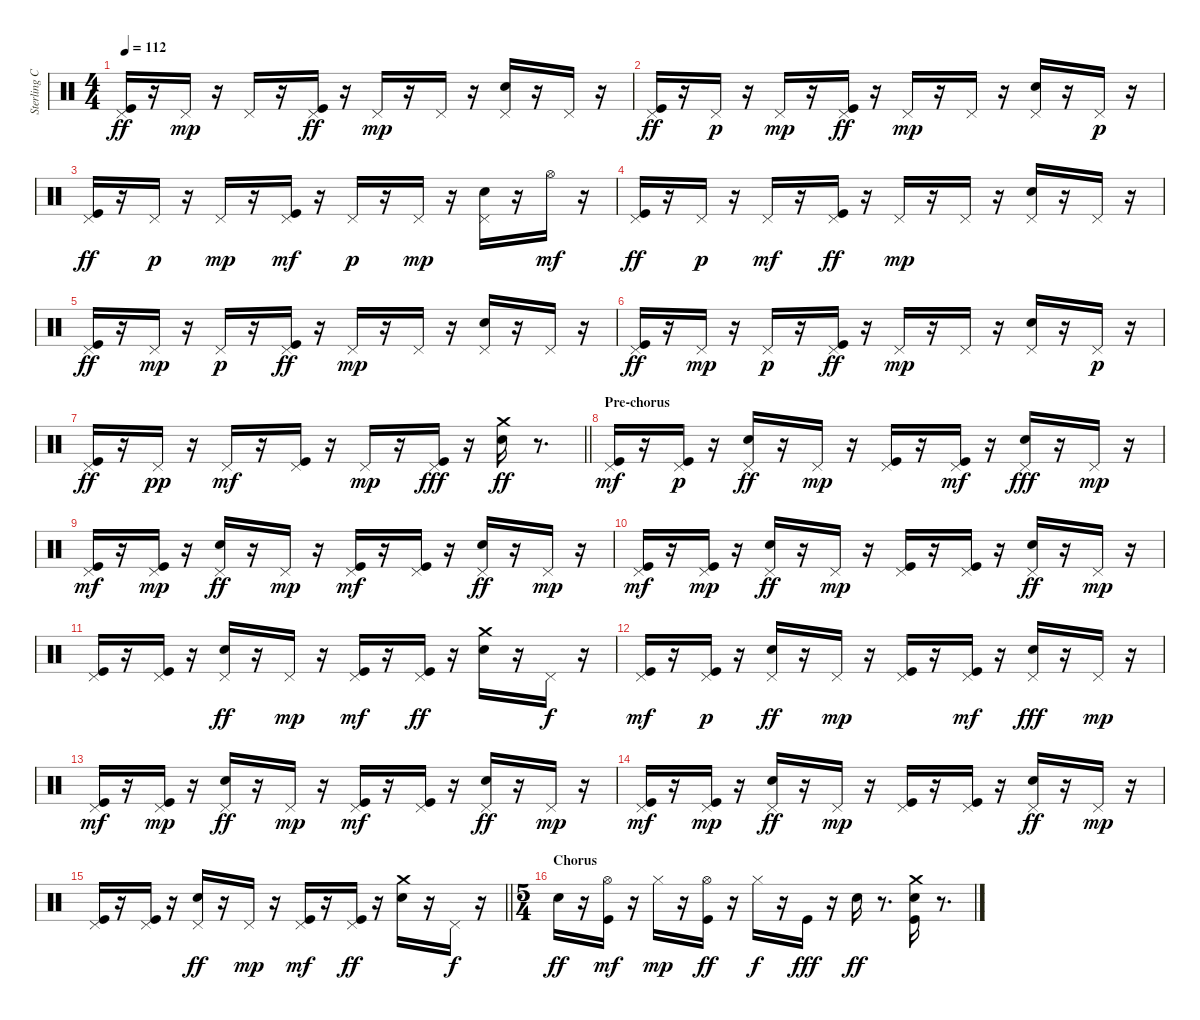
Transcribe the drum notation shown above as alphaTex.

\track ("Sterling Campbell" "Sterling C") {instrument percussion}
\staff {score}
\articulation defaults
\ts (4 4)
\tempo 112
\clef neutral
\ks c
("Kick (hit)" "Pedal Hi-Hat (hit)").16{dy ff} r.16 "Pedal Hi-Hat (hit)".16{dy mp} r.16 "Pedal Hi-Hat (hit)".16 r.16 ("Kick (hit)" "Pedal Hi-Hat (hit)").16{dy ff} r.16 "Pedal Hi-Hat (hit)".16{dy mp} r.16 "Pedal Hi-Hat (hit)".16 r.16 ("Electric Snare (hit)" "Pedal Hi-Hat (hit)").16 r.16 "Pedal Hi-Hat (hit)".16 r.16 |
("Kick (hit)" "Pedal Hi-Hat (hit)").16{dy ff} r.16 "Pedal Hi-Hat (hit)".16{dy p} r.16 "Pedal Hi-Hat (hit)".16{dy mp} r.16 ("Kick (hit)" "Pedal Hi-Hat (hit)").16{dy ff} r.16 "Pedal Hi-Hat (hit)".16{dy mp} r.16 "Pedal Hi-Hat (hit)".16 r.16 ("Electric Snare (hit)" "Pedal Hi-Hat (hit)").16 r.16 "Pedal Hi-Hat (hit)".16{dy p} r.16 |
("Kick (hit)" "Pedal Hi-Hat (hit)").16{dy ff} r.16 "Pedal Hi-Hat (hit)".16{dy p} r.16 "Pedal Hi-Hat (hit)".16{dy mp} r.16 ("Kick (hit)" "Pedal Hi-Hat (hit)").16{dy mf} r.16 "Pedal Hi-Hat (hit)".16{dy p} r.16 "Pedal Hi-Hat (hit)".16{dy mp} r.16 ("Electric Snare (hit)" "Pedal Hi-Hat (hit)").16 r.16 "Hi-Hat (open)".16{dy mf} r.16 |
("Kick (hit)" "Pedal Hi-Hat (hit)").16{dy ff} r.16 "Pedal Hi-Hat (hit)".16{dy p} r.16 "Pedal Hi-Hat (hit)".16{dy mf} r.16 ("Kick (hit)" "Pedal Hi-Hat (hit)").16{dy ff} r.16 "Pedal Hi-Hat (hit)".16{dy mp} r.16 "Pedal Hi-Hat (hit)".16 r.16 ("Electric Snare (hit)" "Pedal Hi-Hat (hit)").16 r.16 "Pedal Hi-Hat (hit)".16 r.16 |
("Kick (hit)" "Pedal Hi-Hat (hit)").16{dy ff} r.16 "Pedal Hi-Hat (hit)".16{dy mp} r.16 "Pedal Hi-Hat (hit)".16{dy p} r.16 ("Kick (hit)" "Pedal Hi-Hat (hit)").16{dy ff} r.16 "Pedal Hi-Hat (hit)".16{dy mp} r.16 "Pedal Hi-Hat (hit)".16 r.16 ("Electric Snare (hit)" "Pedal Hi-Hat (hit)").16 r.16 "Pedal Hi-Hat (hit)".16 r.16 |
("Kick (hit)" "Pedal Hi-Hat (hit)").16{dy ff} r.16 "Pedal Hi-Hat (hit)".16{dy mp} r.16 "Pedal Hi-Hat (hit)".16{dy p} r.16 ("Kick (hit)" "Pedal Hi-Hat (hit)").16{dy ff} r.16 "Pedal Hi-Hat (hit)".16{dy mp} r.16 "Pedal Hi-Hat (hit)".16 r.16 ("Electric Snare (hit)" "Pedal Hi-Hat (hit)").16 r.16 "Pedal Hi-Hat (hit)".16{dy p} r.16 |
\barLineRight lightlight
("Kick (hit)" "Pedal Hi-Hat (hit)").16{dy ff} r.16 "Pedal Hi-Hat (hit)".16{dy pp} r.16 "Pedal Hi-Hat (hit)".16{dy mf} r.16 ("Kick (hit)" "Pedal Hi-Hat (hit)").16 r.16 "Pedal Hi-Hat (hit)".16{dy mp} r.16 ("Kick (hit)" "Pedal Hi-Hat (hit)").16{dy fff} r.16 ("Electric Snare (hit)" "Crash medium (hit)").16{dy ff} r.8{d} |
\section ("" "Pre-chorus")
("Kick (hit)" "Pedal Hi-Hat (hit)").16{dy mf} r.16 ("Kick (hit)" "Pedal Hi-Hat (hit)").16{dy p} r.16 ("Electric Snare (hit)" "Pedal Hi-Hat (hit)").16{dy ff} r.16 "Pedal Hi-Hat (hit)".16{dy mp} r.16 ("Kick (hit)" "Pedal Hi-Hat (hit)").16 r.16 ("Kick (hit)" "Pedal Hi-Hat (hit)").16{dy mf} r.16 ("Electric Snare (hit)" "Pedal Hi-Hat (hit)").16{dy fff} r.16 "Pedal Hi-Hat (hit)".16{dy mp} r.16 |
("Kick (hit)" "Pedal Hi-Hat (hit)").16{dy mf} r.16 ("Kick (hit)" "Pedal Hi-Hat (hit)").16{dy mp} r.16 ("Electric Snare (hit)" "Pedal Hi-Hat (hit)").16{dy ff} r.16 "Pedal Hi-Hat (hit)".16{dy mp} r.16 ("Kick (hit)" "Pedal Hi-Hat (hit)").16{dy mf} r.16 ("Kick (hit)" "Pedal Hi-Hat (hit)").16 r.16 ("Electric Snare (hit)" "Pedal Hi-Hat (hit)").16{dy ff} r.16 "Pedal Hi-Hat (hit)".16{dy mp} r.16 |
("Kick (hit)" "Pedal Hi-Hat (hit)").16{dy mf} r.16 ("Kick (hit)" "Pedal Hi-Hat (hit)").16{dy mp} r.16 ("Electric Snare (hit)" "Pedal Hi-Hat (hit)").16{dy ff} r.16 "Pedal Hi-Hat (hit)".16{dy mp} r.16 ("Kick (hit)" "Pedal Hi-Hat (hit)").16 r.16 ("Kick (hit)" "Pedal Hi-Hat (hit)").16 r.16 ("Electric Snare (hit)" "Pedal Hi-Hat (hit)").16{dy ff} r.16 "Pedal Hi-Hat (hit)".16{dy mp} r.16 |
("Kick (hit)" "Pedal Hi-Hat (hit)").16 r.16 ("Kick (hit)" "Pedal Hi-Hat (hit)").16 r.16 ("Electric Snare (hit)" "Pedal Hi-Hat (hit)").16{dy ff} r.16 "Pedal Hi-Hat (hit)".16{dy mp} r.16 ("Kick (hit)" "Pedal Hi-Hat (hit)").16{dy mf} r.16 ("Kick (hit)" "Pedal Hi-Hat (hit)").16{dy ff} r.16 ("Electric Snare (hit)" "Crash medium (hit)").16 r.16 "Pedal Hi-Hat (hit)".16{dy f} r.16 |
("Kick (hit)" "Pedal Hi-Hat (hit)").16{dy mf} r.16 ("Kick (hit)" "Pedal Hi-Hat (hit)").16{dy p} r.16 ("Electric Snare (hit)" "Pedal Hi-Hat (hit)").16{dy ff} r.16 "Pedal Hi-Hat (hit)".16{dy mp} r.16 ("Kick (hit)" "Pedal Hi-Hat (hit)").16 r.16 ("Kick (hit)" "Pedal Hi-Hat (hit)").16{dy mf} r.16 ("Electric Snare (hit)" "Pedal Hi-Hat (hit)").16{dy fff} r.16 "Pedal Hi-Hat (hit)".16{dy mp} r.16 |
("Kick (hit)" "Pedal Hi-Hat (hit)").16{dy mf} r.16 ("Kick (hit)" "Pedal Hi-Hat (hit)").16{dy mp} r.16 ("Electric Snare (hit)" "Pedal Hi-Hat (hit)").16{dy ff} r.16 "Pedal Hi-Hat (hit)".16{dy mp} r.16 ("Kick (hit)" "Pedal Hi-Hat (hit)").16{dy mf} r.16 ("Kick (hit)" "Pedal Hi-Hat (hit)").16 r.16 ("Electric Snare (hit)" "Pedal Hi-Hat (hit)").16{dy ff} r.16 "Pedal Hi-Hat (hit)".16{dy mp} r.16 |
("Kick (hit)" "Pedal Hi-Hat (hit)").16{dy mf} r.16 ("Kick (hit)" "Pedal Hi-Hat (hit)").16{dy mp} r.16 ("Electric Snare (hit)" "Pedal Hi-Hat (hit)").16{dy ff} r.16 "Pedal Hi-Hat (hit)".16{dy mp} r.16 ("Kick (hit)" "Pedal Hi-Hat (hit)").16 r.16 ("Kick (hit)" "Pedal Hi-Hat (hit)").16 r.16 ("Electric Snare (hit)" "Pedal Hi-Hat (hit)").16{dy ff} r.16 "Pedal Hi-Hat (hit)".16{dy mp} r.16 |
\barLineRight lightlight
("Kick (hit)" "Pedal Hi-Hat (hit)").16 r.16 ("Kick (hit)" "Pedal Hi-Hat (hit)").16 r.16 ("Electric Snare (hit)" "Pedal Hi-Hat (hit)").16{dy ff} r.16 "Pedal Hi-Hat (hit)".16{dy mp} r.16 ("Kick (hit)" "Pedal Hi-Hat (hit)").16{dy mf} r.16 ("Kick (hit)" "Pedal Hi-Hat (hit)").16{dy ff} r.16 ("Electric Snare (hit)" "Crash medium (hit)").16 r.16 "Pedal Hi-Hat (hit)".16{dy f} r.16 |
\ts (5 4)
\section ("" "Chorus")
"Electric Snare (hit)".16{dy ff} r.16 ("Kick (hit)" "Hi-Hat (open)").16{dy mf} r.16 "Hi-Hat (closed)".16{dy mp} r.16 ("Kick (hit)" "Hi-Hat (open)").16{dy ff} r.16 "Hi-Hat (closed)".16{dy f} r.16 "Kick (hit)".16{dy fff} r.16 "Electric Snare (hit)".16{dy ff} r.8{d} ("Electric Snare (hit)" "Kick (hit)" "Crash medium (hit)").16 r.8{d}
